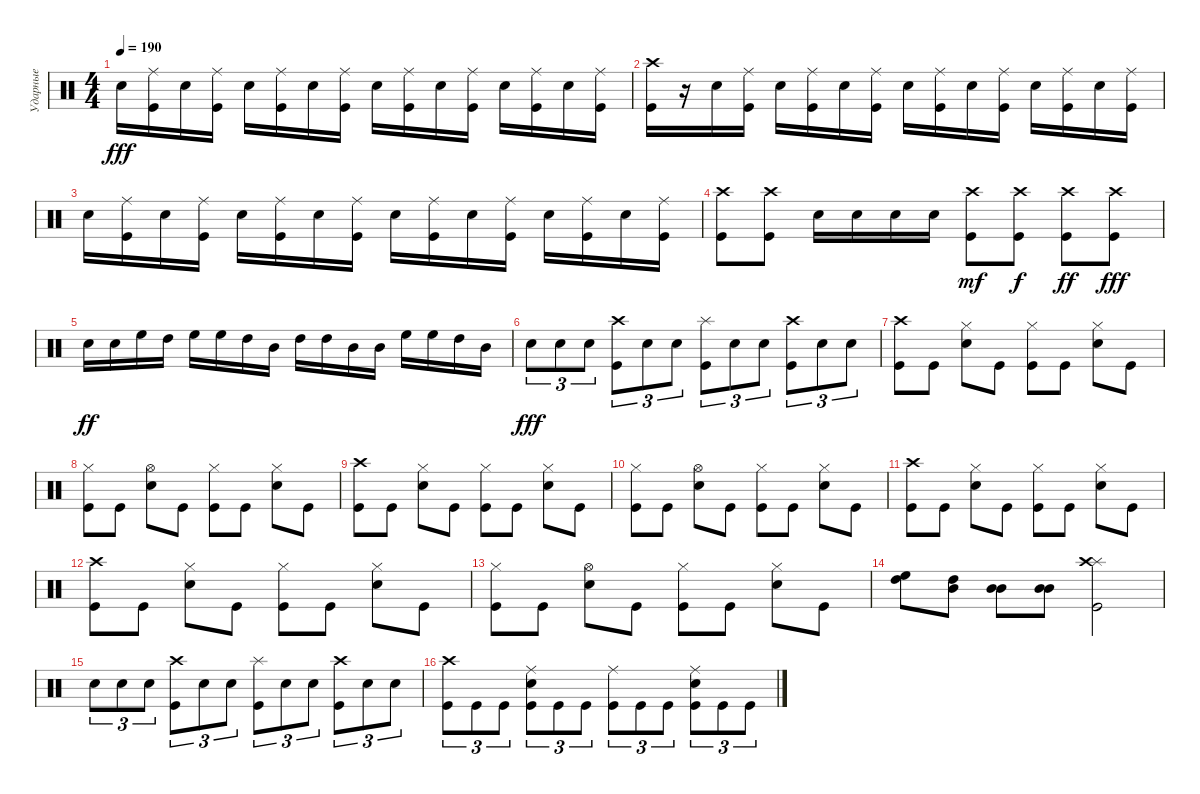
\track ("Ударные" "Ударные") {instrument percussion}
\staff {score}
\articulation defaults
\ts (4 4)
\tempo 190
\clef neutral
\ks c "Snare (hit) 2".16{dy fff}
("Kick (hit)" "Ride (middle)").16 "Snare (hit) 2".16 ("Kick (hit)" "Ride (middle)").16 "Snare (hit) 2".16 ("Kick (hit)" "Ride (middle)").16 "Snare (hit) 2".16 ("Kick (hit)" "Ride (middle)").16 "Snare (hit) 2".16 ("Kick (hit)" "Ride (middle)").16 "Snare (hit) 2".16 ("Kick (hit)" "Ride (middle)").16 "Snare (hit) 2".16 ("Kick (hit)" "Ride (middle)").16 "Snare (hit) 2".16 ("Kick (hit)" "Ride (middle)").16 |
("Kick (hit)" "Crash high (hit)").16 r.16 "Snare (hit) 2".16 ("Kick (hit)" "Ride (middle)").16 "Snare (hit) 2".16 ("Kick (hit)" "Ride (middle)").16 "Snare (hit) 2".16 ("Kick (hit)" "Ride (middle)").16 "Snare (hit) 2".16 ("Kick (hit)" "Ride (middle)").16 "Snare (hit) 2".16 ("Kick (hit)" "Ride (middle)").16 "Snare (hit) 2".16 ("Kick (hit)" "Ride (middle)").16 "Snare (hit) 2".16 ("Kick (hit)" "Ride (middle)").16 |
"Snare (hit) 2".16 ("Kick (hit)" "Ride (middle)").16 "Snare (hit) 2".16 ("Kick (hit)" "Ride (middle)").16 "Snare (hit) 2".16 ("Kick (hit)" "Ride (middle)").16 "Snare (hit) 2".16 ("Kick (hit)" "Ride (middle)").16 "Snare (hit) 2".16 ("Kick (hit)" "Ride (middle)").16 "Snare (hit) 2".16 ("Kick (hit)" "Ride (middle)").16 "Snare (hit) 2".16 ("Kick (hit)" "Ride (middle)").16 "Snare (hit) 2".16 ("Kick (hit)" "Ride (middle)").16 |
("Crash high (hit)" "Kick (hit)").8 ("Kick (hit)" "Crash high (hit)").8 "Snare (hit) 2".16 "Snare (hit) 2".16 "Snare (hit) 2".16 "Snare (hit) 2".16 ("Crash high (hit)" "Kick (hit)").8{dy mf} ("Crash high (hit)" "Kick (hit)").8{dy f} ("Kick (hit)" "Crash high (hit)").8{dy ff} ("Crash high (hit)" "Kick (hit)").8{dy fff} |
"Snare (hit) 2".16{dy ff} "Snare (hit) 2".16 "High Floor Tom (hit)".16 "High Tom (hit)".16 "High Floor Tom (hit)".16 "High Floor Tom (hit)".16 "High Tom (hit)".16 "Mid Tom (hit)".16 "High Tom (hit)".16 "High Tom (hit)".16 "Mid Tom (hit)".16 "Mid Tom (hit)".16 "High Floor Tom (hit)".16 "High Floor Tom (hit)".16 "High Tom (hit)".16 "Mid Tom (hit)".16 |
"Snare (hit) 2".8{tu (3 2) dy fff} "Snare (hit) 2".8{tu (3 2)} "Snare (hit) 2".8{tu (3 2)} ("Crash high (hit)" "Kick (hit)").8{tu (3 2)} "Snare (hit) 2".8{tu (3 2)} "Snare (hit) 2".8{tu (3 2)} ("Splash (hit)" "Kick (hit)").8{tu (3 2)} "Snare (hit) 2".8{tu (3 2)} "Snare (hit) 2".8{tu (3 2)} ("Crash high (hit)" "Kick (hit)").8{tu (3 2)} "Snare (hit) 2".8{tu (3 2)} "Snare (hit) 2".8{tu (3 2)} |
("Crash high (hit)" "Kick (hit)").8 "Kick (hit)".8 ("Snare (hit) 2" "Hi-Hat (closed)").8 "Kick (hit)".8 ("Kick (hit)" "Hi-Hat (closed)").8 "Kick (hit)".8 ("Snare (hit) 2" "Hi-Hat (closed)").8 "Kick (hit)".8 |
("Hi-Hat (closed)" "Kick (hit)").8 "Kick (hit)".8 ("Snare (hit) 2" "Hi-Hat (open)").8 "Kick (hit)".8 ("Kick (hit)" "Hi-Hat (closed)").8 "Kick (hit)".8 ("Snare (hit) 2" "Hi-Hat (closed)").8 "Kick (hit)".8 |
("Crash high (hit)" "Kick (hit)").8 "Kick (hit)".8 ("Snare (hit) 2" "Hi-Hat (closed)").8 "Kick (hit)".8 ("Kick (hit)" "Hi-Hat (closed)").8 "Kick (hit)".8 ("Snare (hit) 2" "Hi-Hat (closed)").8 "Kick (hit)".8 |
("Hi-Hat (closed)" "Kick (hit)").8 "Kick (hit)".8 ("Snare (hit) 2" "Hi-Hat (open)").8 "Kick (hit)".8 ("Kick (hit)" "Hi-Hat (closed)").8 "Kick (hit)".8 ("Snare (hit) 2" "Hi-Hat (closed)").8 "Kick (hit)".8 |
("Crash high (hit)" "Kick (hit)").8 "Kick (hit)".8 ("Snare (hit) 2" "Hi-Hat (closed)").8 "Kick (hit)".8 ("Kick (hit)" "Hi-Hat (closed)").8 "Kick (hit)".8 ("Snare (hit) 2" "Hi-Hat (closed)").8 "Kick (hit)".8 |
("Crash high (hit)" "Kick (hit)").8 "Kick (hit)".8 ("Snare (hit) 2" "Hi-Hat (closed)").8 "Kick (hit)".8 ("Kick (hit)" "Hi-Hat (closed)").8 "Kick (hit)".8 ("Snare (hit) 2" "Hi-Hat (closed)").8 "Kick (hit)".8 |
("Hi-Hat (closed)" "Kick (hit)").8 "Kick (hit)".8 ("Snare (hit) 2" "Hi-Hat (open)").8 "Kick (hit)".8 ("Kick (hit)" "Hi-Hat (closed)").8 "Kick (hit)".8 ("Snare (hit) 2" "Hi-Hat (closed)").8 "Kick (hit)".8 |
("High Floor Tom (hit)" "High Tom (hit)").8 ("High Tom (hit)" "Mid Tom (hit)").8 ("Mid Tom (hit)" "Mid Tom (hit)").8 ("Mid Tom (hit)" "Mid Tom (hit)").8 ("Kick (hit)" "Splash (hit)" "Crash high (hit)").2 |
"Snare (hit) 2".8{tu (3 2)} "Snare (hit) 2".8{tu (3 2)} "Snare (hit) 2".8{tu (3 2)} ("Crash high (hit)" "Kick (hit)").8{tu (3 2)} "Snare (hit) 2".8{tu (3 2)} "Snare (hit) 2".8{tu (3 2)} ("Splash (hit)" "Kick (hit)").8{tu (3 2)} "Snare (hit) 2".8{tu (3 2)} "Snare (hit) 2".8{tu (3 2)} ("Crash high (hit)" "Kick (hit)").8{tu (3 2)} "Snare (hit) 2".8{tu (3 2)} "Snare (hit) 2".8{tu (3 2)} |
("Kick (hit)" "Crash high (hit)").8{tu (3 2)} "Kick (hit)".8{tu (3 2)} "Kick (hit)".8{tu (3 2)} ("Kick (hit)" "Snare (hit) 2" "Ride (middle)").8{tu (3 2)} "Kick (hit)".8{tu (3 2)} "Kick (hit)".8{tu (3 2)} ("Kick (hit)" "Ride (middle)").8{tu (3 2)} "Kick (hit)".8{tu (3 2)} "Kick (hit)".8{tu (3 2)} ("Kick (hit)" "Snare (hit) 2" "Ride (middle)").8{tu (3 2)} "Kick (hit)".8{tu (3 2)} "Kick (hit)".8{tu (3 2)}
